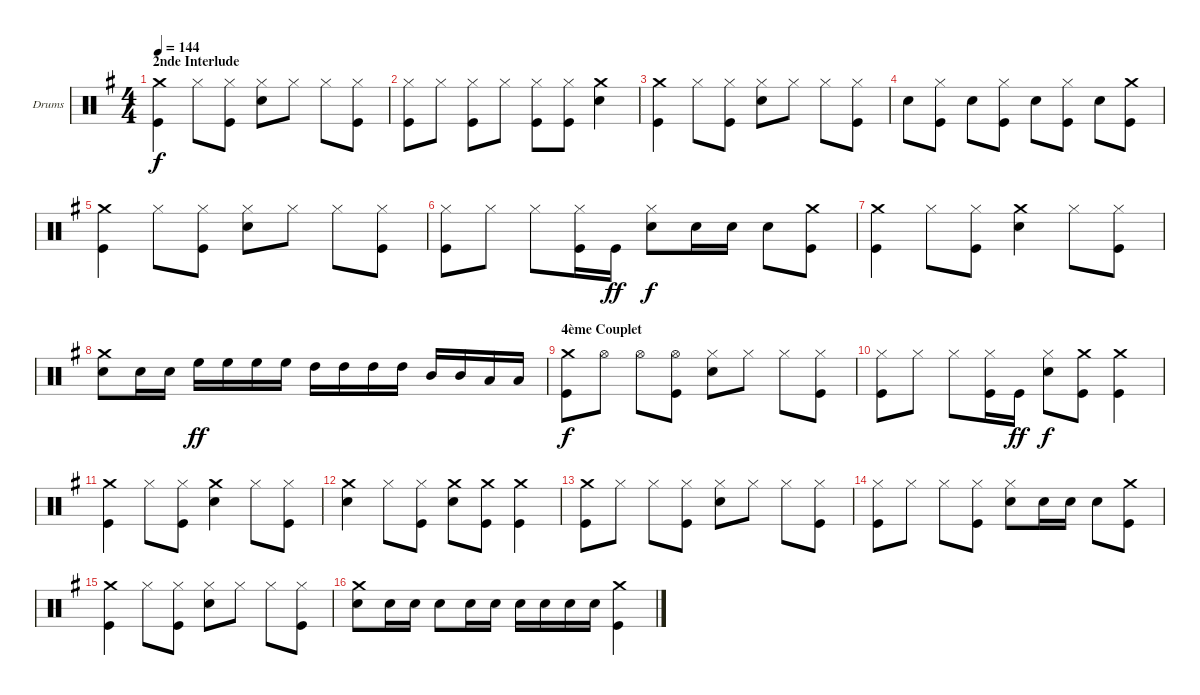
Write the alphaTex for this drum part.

\bracketExtendMode groupsimilarinstruments
\firstSystemTrackNameOrientation horizontal
\otherSystemsTrackNameOrientation horizontal
\track ("Drumkit" "Drums") {instrument percussion}
\staff {score}
\articulation defaults
\ts (4 4)
\section ("" "2nde Interlude")
\tempo 144
\clef neutral
\ks g
("Crash medium (hit)" "Kick (hit)").4{dy f} "Hi-Hat (closed)".8 ("Hi-Hat (closed)" "Kick (hit)").8 ("Hi-Hat (closed)" "Snare (hit) 2").8 "Hi-Hat (closed)".8 "Hi-Hat (closed)".8 ("Hi-Hat (closed)" "Kick (hit)").8 |
("Hi-Hat (closed)" "Kick (hit)").8 "Hi-Hat (closed)".8 ("Hi-Hat (closed)" "Kick (hit)").8 "Hi-Hat (closed)".8 ("Hi-Hat (closed)" "Kick (hit)").8 ("Hi-Hat (closed)" "Kick (hit)").8 ("Crash medium (hit)" "Snare (hit) 2").4 |
("Crash medium (hit)" "Kick (hit)").4 "Hi-Hat (closed)".8 ("Hi-Hat (closed)" "Kick (hit)").8 ("Hi-Hat (closed)" "Snare (hit) 2").8 "Hi-Hat (closed)".8 "Hi-Hat (closed)".8 ("Hi-Hat (closed)" "Kick (hit)").8 |
"Snare (hit) 2".8 ("Hi-Hat (closed)" "Kick (hit)").8 "Snare (hit) 2".8 ("Hi-Hat (closed)" "Kick (hit)").8 "Snare (hit) 2".8 ("Hi-Hat (closed)" "Kick (hit)").8 "Snare (hit) 2".8 ("Crash medium (hit)" "Kick (hit)").8 |
("Crash medium (hit)" "Kick (hit)").4 "Hi-Hat (closed)".8 ("Hi-Hat (closed)" "Kick (hit)").8 ("Hi-Hat (closed)" "Snare (hit) 2").8 "Hi-Hat (closed)".8 "Hi-Hat (closed)".8 ("Hi-Hat (closed)" "Kick (hit)").8 |
("Hi-Hat (closed)" "Kick (hit)").8 "Hi-Hat (closed)".8 "Hi-Hat (closed)".8 ("Hi-Hat (closed)" "Kick (hit)").16 "Kick (hit)".16{dy ff} ("Hi-Hat (closed)" "Snare (hit) 2").8{dy f} "Snare (hit) 2".16 "Snare (hit) 2".16 "Snare (hit) 2".8 ("Crash medium (hit)" "Kick (hit)").8 |
("Crash medium (hit)" "Kick (hit)").4 "Hi-Hat (closed)".8 ("Hi-Hat (closed)" "Kick (hit)").8 ("Crash medium (hit)" "Snare (hit) 2").4 "Hi-Hat (closed)".8 ("Hi-Hat (closed)" "Kick (hit)").8 |
("Crash medium (hit)" "Snare (hit) 2").8 "Snare (hit) 2".16 "Snare (hit) 2".16 "High Floor Tom (hit)".16{dy ff} "High Floor Tom (hit)".16 "High Floor Tom (hit)".16 "High Floor Tom (hit)".16 "High Tom (hit)".16 "High Tom (hit)".16 "High Tom (hit)".16 "High Tom (hit)".16 "Mid Tom (hit)".16 "Mid Tom (hit)".16 "Low Tom (hit)".16 "Low Tom (hit)".16 |
\section ("" "4ème Couplet")
("Crash medium (hit)" "Kick (hit)").8{dy f} "Hi-Hat (open)".8 "Hi-Hat (open)".8 ("Hi-Hat (open)" "Kick (hit)").8 ("Hi-Hat (closed)" "Snare (hit) 2").8 "Hi-Hat (closed)".8 "Hi-Hat (closed)".8 ("Hi-Hat (closed)" "Kick (hit)").8 |
("Hi-Hat (closed)" "Kick (hit)").8 "Hi-Hat (closed)".8 "Hi-Hat (closed)".8 ("Hi-Hat (closed)" "Kick (hit)").16 "Kick (hit)".16{dy ff} ("Hi-Hat (closed)" "Snare (hit) 2").8{dy f} ("Crash medium (hit)" "Kick (hit)").8 ("Crash medium (hit)" "Kick (hit)").4 |
("Crash medium (hit)" "Kick (hit)").4 "Hi-Hat (closed)".8 ("Hi-Hat (closed)" "Kick (hit)").8 ("Crash medium (hit)" "Snare (hit) 2").4 "Hi-Hat (closed)".8 ("Hi-Hat (closed)" "Kick (hit)").8 |
("Crash medium (hit)" "Snare (hit) 2").4 "Hi-Hat (closed)".8 ("Hi-Hat (closed)" "Kick (hit)").8 ("Crash medium (hit)" "Snare (hit) 2").8 ("Crash medium (hit)" "Kick (hit)").8 ("Crash medium (hit)" "Kick (hit)").4 |
("Crash medium (hit)" "Kick (hit)").8 "Hi-Hat (closed)".8 "Hi-Hat (closed)".8 ("Hi-Hat (closed)" "Kick (hit)").8 ("Hi-Hat (closed)" "Snare (hit) 2").8 "Hi-Hat (closed)".8 "Hi-Hat (closed)".8 ("Hi-Hat (closed)" "Kick (hit)").8 |
("Hi-Hat (closed)" "Kick (hit)").8 "Hi-Hat (closed)".8 "Hi-Hat (closed)".8 ("Hi-Hat (closed)" "Kick (hit)").8 ("Hi-Hat (closed)" "Snare (hit) 2").8 "Snare (hit) 2".16 "Snare (hit) 2".16 "Snare (hit) 2".8 ("Crash medium (hit)" "Kick (hit)").8 |
("Crash medium (hit)" "Kick (hit)").4 "Hi-Hat (closed)".8 ("Hi-Hat (closed)" "Kick (hit)").8 ("Hi-Hat (closed)" "Snare (hit) 2").8 "Hi-Hat (closed)".8 "Hi-Hat (closed)".8 ("Hi-Hat (closed)" "Kick (hit)").8 |
("Crash medium (hit)" "Snare (hit) 2").8 "Snare (hit) 2".16 "Snare (hit) 2".16 "Snare (hit) 2".8 "Snare (hit) 2".16 "Snare (hit) 2".16 "Snare (hit) 2".16 "Snare (hit) 2".16 "Snare (hit) 2".16 "Snare (hit) 2".16 ("Crash medium (hit)" "Kick (hit)").4
